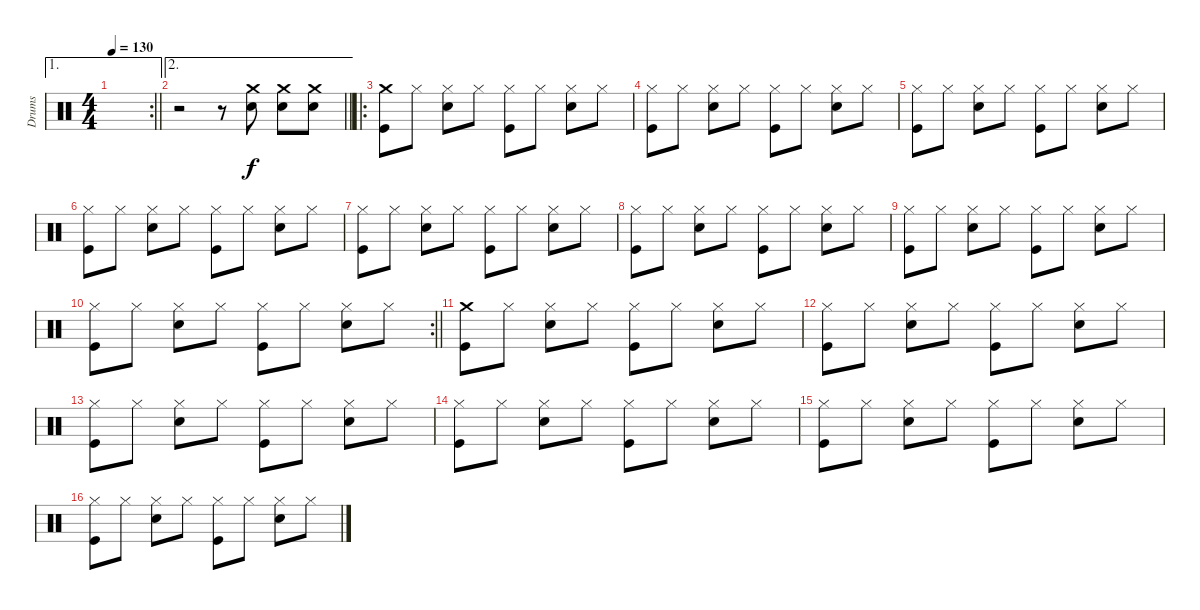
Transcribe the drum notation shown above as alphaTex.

\track ("Drums" "Drums") {instrument percussion}
\staff {score}
\articulation defaults
\ae 1
\rc 2
\ts (4 4)
\tempo 130
\clef neutral
\barLineRight lightlight
\ks c
|
\ae 2
\barLineRight lightlight
r.2 r.8 ("Crash medium (hit)" "Snare (hit) 2").8 ("Crash medium (hit)" "Snare (hit) 2").8 ("Crash medium (hit)" "Snare (hit) 2").8 |
\ro
("Crash medium (hit)" "Kick (hit)").8 "Hi-Hat (closed)".8 ("Hi-Hat (closed)" "Snare (hit) 2").8 "Hi-Hat (closed)".8 ("Hi-Hat (closed)" "Kick (hit)").8 "Hi-Hat (closed)".8 ("Hi-Hat (closed)" "Snare (hit) 2").8 "Hi-Hat (closed)".8 |
("Hi-Hat (closed)" "Kick (hit)").8 "Hi-Hat (closed)".8 ("Hi-Hat (closed)" "Snare (hit) 2").8 "Hi-Hat (closed)".8 ("Hi-Hat (closed)" "Kick (hit)").8 "Hi-Hat (closed)".8 ("Hi-Hat (closed)" "Snare (hit) 2").8 "Hi-Hat (closed)".8 |
("Hi-Hat (closed)" "Kick (hit)").8 "Hi-Hat (closed)".8 ("Hi-Hat (closed)" "Snare (hit) 2").8 "Hi-Hat (closed)".8 ("Hi-Hat (closed)" "Kick (hit)").8 "Hi-Hat (closed)".8 ("Hi-Hat (closed)" "Snare (hit) 2").8 "Hi-Hat (closed)".8 |
("Hi-Hat (closed)" "Kick (hit)").8 "Hi-Hat (closed)".8 ("Hi-Hat (closed)" "Snare (hit) 2").8 "Hi-Hat (closed)".8 ("Hi-Hat (closed)" "Kick (hit)").8 "Hi-Hat (closed)".8 ("Hi-Hat (closed)" "Snare (hit) 2").8 "Hi-Hat (closed)".8 |
("Hi-Hat (closed)" "Kick (hit)").8 "Hi-Hat (closed)".8 ("Hi-Hat (closed)" "Snare (hit) 2").8 "Hi-Hat (closed)".8 ("Hi-Hat (closed)" "Kick (hit)").8 "Hi-Hat (closed)".8 ("Hi-Hat (closed)" "Snare (hit) 2").8 "Hi-Hat (closed)".8 |
("Hi-Hat (closed)" "Kick (hit)").8 "Hi-Hat (closed)".8 ("Hi-Hat (closed)" "Snare (hit) 2").8 "Hi-Hat (closed)".8 ("Hi-Hat (closed)" "Kick (hit)").8 "Hi-Hat (closed)".8 ("Hi-Hat (closed)" "Snare (hit) 2").8 "Hi-Hat (closed)".8 |
("Hi-Hat (closed)" "Kick (hit)").8 "Hi-Hat (closed)".8 ("Hi-Hat (closed)" "Snare (hit) 2").8 "Hi-Hat (closed)".8 ("Hi-Hat (closed)" "Kick (hit)").8 "Hi-Hat (closed)".8 ("Hi-Hat (closed)" "Snare (hit) 2").8 "Hi-Hat (closed)".8 |
\rc 2
\barLineRight lightlight
("Hi-Hat (closed)" "Kick (hit)").8 "Hi-Hat (closed)".8 ("Hi-Hat (closed)" "Snare (hit) 2").8 "Hi-Hat (closed)".8 ("Hi-Hat (closed)" "Kick (hit)").8 "Hi-Hat (closed)".8 ("Hi-Hat (closed)" "Snare (hit) 2").8 "Hi-Hat (closed)".8 |
("Crash medium (hit)" "Kick (hit)").8 "Hi-Hat (closed)".8 ("Hi-Hat (closed)" "Snare (hit) 2").8 "Hi-Hat (closed)".8 ("Hi-Hat (closed)" "Kick (hit)").8 "Hi-Hat (closed)".8 ("Hi-Hat (closed)" "Snare (hit) 2").8 "Hi-Hat (closed)".8 |
("Hi-Hat (closed)" "Kick (hit)").8 "Hi-Hat (closed)".8 ("Hi-Hat (closed)" "Snare (hit) 2").8 "Hi-Hat (closed)".8 ("Hi-Hat (closed)" "Kick (hit)").8 "Hi-Hat (closed)".8 ("Hi-Hat (closed)" "Snare (hit) 2").8 "Hi-Hat (closed)".8 |
("Hi-Hat (closed)" "Kick (hit)").8 "Hi-Hat (closed)".8 ("Hi-Hat (closed)" "Snare (hit) 2").8 "Hi-Hat (closed)".8 ("Hi-Hat (closed)" "Kick (hit)").8 "Hi-Hat (closed)".8 ("Hi-Hat (closed)" "Snare (hit) 2").8 "Hi-Hat (closed)".8 |
("Hi-Hat (closed)" "Kick (hit)").8 "Hi-Hat (closed)".8 ("Hi-Hat (closed)" "Snare (hit) 2").8 "Hi-Hat (closed)".8 ("Hi-Hat (closed)" "Kick (hit)").8 "Hi-Hat (closed)".8 ("Hi-Hat (closed)" "Snare (hit) 2").8 "Hi-Hat (closed)".8 |
("Hi-Hat (closed)" "Kick (hit)").8 "Hi-Hat (closed)".8 ("Hi-Hat (closed)" "Snare (hit) 2").8 "Hi-Hat (closed)".8 ("Hi-Hat (closed)" "Kick (hit)").8 "Hi-Hat (closed)".8 ("Hi-Hat (closed)" "Snare (hit) 2").8 "Hi-Hat (closed)".8 |
("Hi-Hat (closed)" "Kick (hit)").8 "Hi-Hat (closed)".8 ("Hi-Hat (closed)" "Snare (hit) 2").8 "Hi-Hat (closed)".8 ("Hi-Hat (closed)" "Kick (hit)").8 "Hi-Hat (closed)".8 ("Hi-Hat (closed)" "Snare (hit) 2").8 "Hi-Hat (closed)".8
